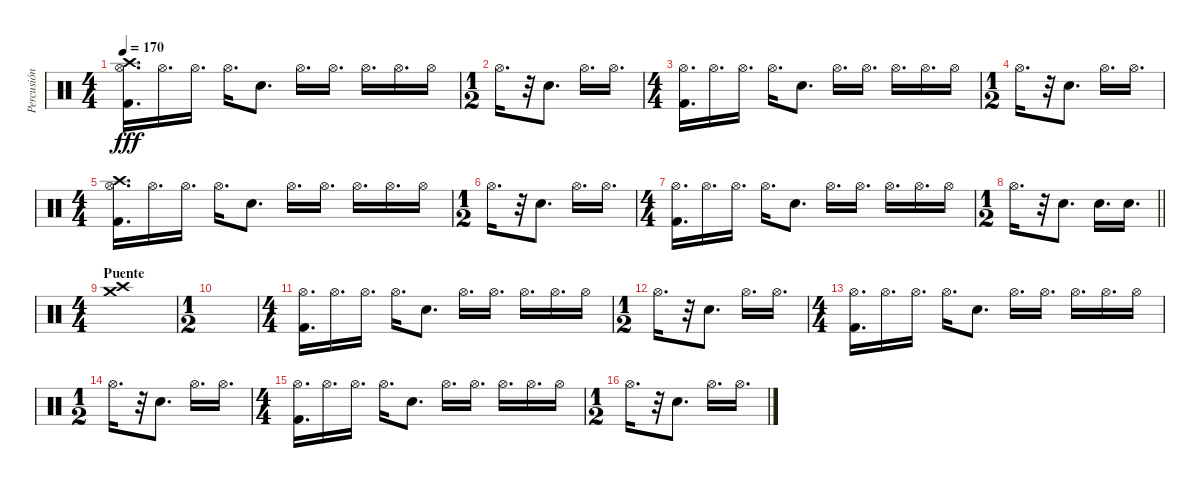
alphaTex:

\track ("Percusión" "Percusión") {instrument percussion}
\staff {score}
\articulation defaults
\ts (4 4)
\tempo 170
\clef neutral
\ks c
("Crash high (hit)" "Hi-Hat (open)" "Kick (hit) 2").16{d dy fff} "Hi-Hat (open)".16{d} "Hi-Hat (open)".16{d} "Hi-Hat (open)".16{d} "Electric Snare (hit)".8{d} "Hi-Hat (open)".16{d} "Hi-Hat (open)".16{d} "Hi-Hat (open)".16{d} "Hi-Hat (open)".16{d} "Hi-Hat (open)".16 |
\ts (1 2)
"Hi-Hat (open)".16{d} r.32 "Electric Snare (hit)".8{d} "Hi-Hat (open)".16{d} "Hi-Hat (open)".16{d} |
\ts (4 4)
("Hi-Hat (open)" "Kick (hit) 2").16{d} "Hi-Hat (open)".16{d} "Hi-Hat (open)".16{d} "Hi-Hat (open)".16{d} "Electric Snare (hit)".8{d} "Hi-Hat (open)".16{d} "Hi-Hat (open)".16{d} "Hi-Hat (open)".16{d} "Hi-Hat (open)".16{d} "Hi-Hat (open)".16 |
\ts (1 2)
"Hi-Hat (open)".16{d} r.32 "Electric Snare (hit)".8{d} "Hi-Hat (open)".16{d} "Hi-Hat (open)".16{d} |
\ts (4 4)
("Crash high (hit)" "Hi-Hat (open)" "Kick (hit) 2").16{d} "Hi-Hat (open)".16{d} "Hi-Hat (open)".16{d} "Hi-Hat (open)".16{d} "Electric Snare (hit)".8{d} "Hi-Hat (open)".16{d} "Hi-Hat (open)".16{d} "Hi-Hat (open)".16{d} "Hi-Hat (open)".16{d} "Hi-Hat (open)".16 |
\ts (1 2)
"Hi-Hat (open)".16{d} r.32 "Electric Snare (hit)".8{d} "Hi-Hat (open)".16{d} "Hi-Hat (open)".16{d} |
\ts (4 4)
("Hi-Hat (open)" "Kick (hit) 2").16{d} "Hi-Hat (open)".16{d} "Hi-Hat (open)".16{d} "Hi-Hat (open)".16{d} "Electric Snare (hit)".8{d} "Hi-Hat (open)".16{d} "Hi-Hat (open)".16{d} "Hi-Hat (open)".16{d} "Hi-Hat (open)".16{d} "Hi-Hat (open)".16 |
\ts (1 2)
\barLineRight lightlight "Hi-Hat (open)".16{d}
r.32 "Electric Snare (hit)".8{d} "Electric Snare (hit)".16{d} "Electric Snare (hit)".16{d} |
\ts (4 4)
\section ("" "Puente")
("Crash medium (hit)" "Crash high (hit)").1 |
\ts (1 2)
|
\ts (4 4)
("Hi-Hat (open)" "Kick (hit) 2").16{d} "Hi-Hat (open)".16{d} "Hi-Hat (open)".16{d} "Hi-Hat (open)".16{d} "Electric Snare (hit)".8{d} "Hi-Hat (open)".16{d} "Hi-Hat (open)".16{d} "Hi-Hat (open)".16{d} "Hi-Hat (open)".16{d} "Hi-Hat (open)".16 |
\ts (1 2)
"Hi-Hat (open)".16{d} r.32 "Electric Snare (hit)".8{d} "Hi-Hat (open)".16{d} "Hi-Hat (open)".16{d} |
\ts (4 4)
("Hi-Hat (open)" "Kick (hit) 2").16{d} "Hi-Hat (open)".16{d} "Hi-Hat (open)".16{d} "Hi-Hat (open)".16{d} "Electric Snare (hit)".8{d} "Hi-Hat (open)".16{d} "Hi-Hat (open)".16{d} "Hi-Hat (open)".16{d} "Hi-Hat (open)".16{d} "Hi-Hat (open)".16 |
\ts (1 2)
"Hi-Hat (open)".16{d} r.32 "Electric Snare (hit)".8{d} "Hi-Hat (open)".16{d} "Hi-Hat (open)".16{d} |
\ts (4 4)
("Hi-Hat (open)" "Kick (hit) 2").16{d} "Hi-Hat (open)".16{d} "Hi-Hat (open)".16{d} "Hi-Hat (open)".16{d} "Electric Snare (hit)".8{d} "Hi-Hat (open)".16{d} "Hi-Hat (open)".16{d} "Hi-Hat (open)".16{d} "Hi-Hat (open)".16{d} "Hi-Hat (open)".16 |
\ts (1 2)
"Hi-Hat (open)".16{d} r.32 "Electric Snare (hit)".8{d} "Hi-Hat (open)".16{d} "Hi-Hat (open)".16{d}
